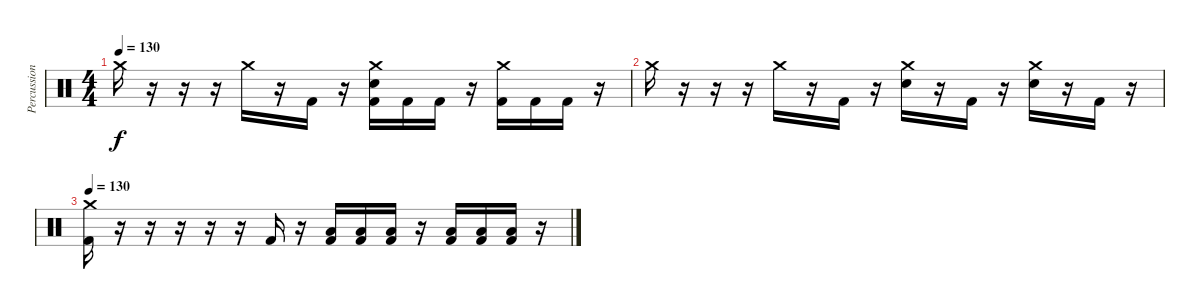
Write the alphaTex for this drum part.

\track ("Percussion" "Percussion") {instrument percussion}
\staff {score}
\articulation defaults
\ts (4 4)
\tempo 130
\clef neutral
\ks c "Crash medium (hit)".16{dy f}
r.16 r.16 r.16 "Crash medium (hit)".16 r.16 "Kick (hit) 2".16 r.16 ("Crash medium (hit)" "Electric Snare (hit)" "Kick (hit) 2").16 "Kick (hit) 2".16 "Kick (hit) 2".16 r.16 ("Crash medium (hit)" "Kick (hit) 2").16 "Kick (hit) 2".16 "Kick (hit) 2".16 r.16 |
"Crash medium (hit)".16 r.16 r.16 r.16 "Crash medium (hit)".16 r.16 "Kick (hit) 2".16 r.16 ("Crash medium (hit)" "Electric Snare (hit)").16 r.16 "Kick (hit) 2".16 r.16 ("Crash medium (hit)" "Electric Snare (hit)").16 r.16 "Kick (hit) 2".16 r.16 |
\tempo 130
("Crash medium (hit)" "Kick (hit) 2").16 r.16 r.16 r.16 r.16 r.16 "Kick (hit) 2".16 r.16 ("Low Tom (hit)" "Kick (hit) 2").16 ("Low Tom (hit)" "Kick (hit) 2").16 ("Low Tom (hit)" "Kick (hit) 2").16 r.16 ("Low Tom (hit)" "Kick (hit) 2").16 ("Low Tom (hit)" "Kick (hit) 2").16 ("Low Tom (hit)" "Kick (hit) 2").16 r.16
